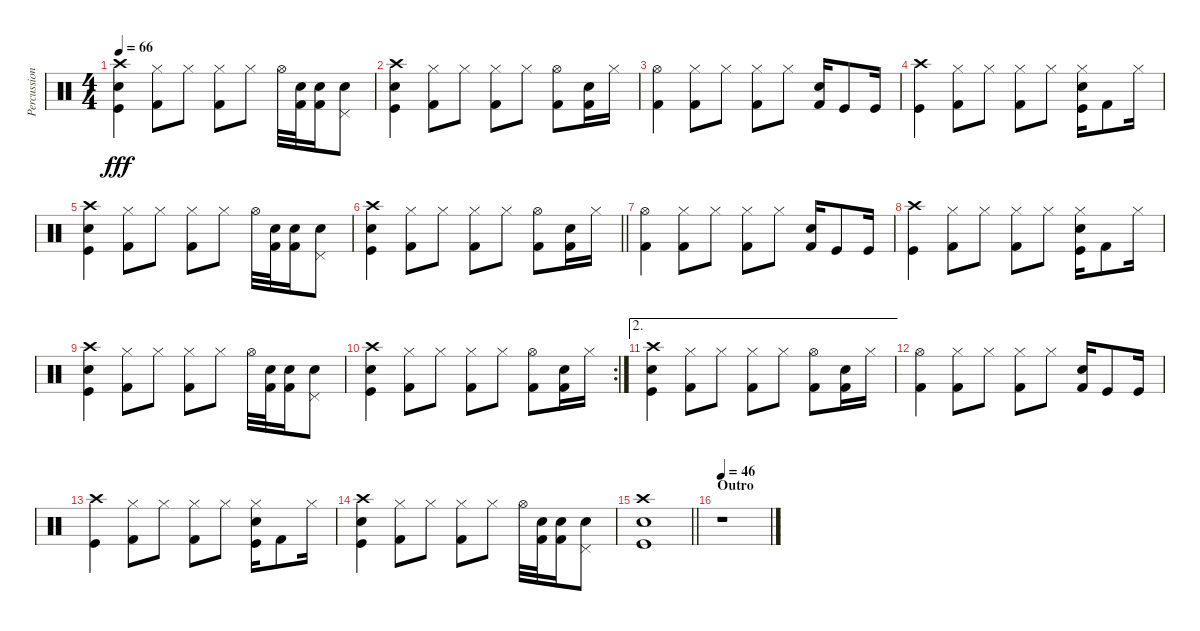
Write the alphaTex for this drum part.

\track ("Percussion" "Percussion") {instrument percussion}
\staff {score}
\articulation defaults
\ts (4 4)
\tempo 66
\clef neutral
\ks c
("Crash high (hit)" "Snare (hit) 2" "Kick (hit)").4{dy fff} ("Hi-Hat (closed)" "Kick (hit) 2").8 "Hi-Hat (closed)".8 ("Hi-Hat (closed)" "Kick (hit) 2").8 "Hi-Hat (closed)".8 "Hi-Hat (open)".32 ("Snare (hit) 2" "Kick (hit) 2").32 ("Snare (hit) 2" "Kick (hit) 2").16 ("Pedal Hi-Hat (hit)" "Snare (hit) 2").8 |
("Crash high (hit)" "Snare (hit) 2" "Kick (hit)").4 ("Hi-Hat (closed)" "Kick (hit) 2").8 "Hi-Hat (closed)".8 ("Hi-Hat (closed)" "Kick (hit) 2").8 "Hi-Hat (closed)".8 ("Hi-Hat (open)" "Kick (hit) 2").8 ("Snare (hit) 2" "Kick (hit) 2").16 "Hi-Hat (closed)".16 |
("Hi-Hat (open)" "Kick (hit) 2").4 ("Hi-Hat (closed)" "Kick (hit) 2").8 "Hi-Hat (closed)".8 ("Hi-Hat (closed)" "Kick (hit) 2").8 "Hi-Hat (closed)".8 ("Snare (hit) 2" "Kick (hit) 2").16 "Kick (hit)".8 "Kick (hit)".16 |
("Crash high (hit)" "Kick (hit)").4 ("Hi-Hat (closed)" "Kick (hit) 2").8 "Hi-Hat (closed)".8 ("Hi-Hat (closed)" "Kick (hit) 2").8 "Hi-Hat (closed)".8 ("Hi-Hat (closed)" "Snare (hit) 2" "Kick (hit)").16 "Kick (hit) 2".8 "Hi-Hat (closed)".16 |
("Crash high (hit)" "Snare (hit) 2" "Kick (hit)").4 ("Hi-Hat (closed)" "Kick (hit) 2").8 "Hi-Hat (closed)".8 ("Hi-Hat (closed)" "Kick (hit) 2").8 "Hi-Hat (closed)".8 "Hi-Hat (open)".32 ("Snare (hit) 2" "Kick (hit) 2").32 ("Snare (hit) 2" "Kick (hit) 2").16 ("Pedal Hi-Hat (hit)" "Snare (hit) 2").8 |
\barLineRight lightlight
("Crash high (hit)" "Snare (hit) 2" "Kick (hit)").4 ("Hi-Hat (closed)" "Kick (hit) 2").8 "Hi-Hat (closed)".8 ("Hi-Hat (closed)" "Kick (hit) 2").8 "Hi-Hat (closed)".8 ("Hi-Hat (open)" "Kick (hit) 2").8 ("Snare (hit) 2" "Kick (hit) 2").16 "Hi-Hat (closed)".16 |
("Hi-Hat (open)" "Kick (hit) 2").4 ("Hi-Hat (closed)" "Kick (hit) 2").8 "Hi-Hat (closed)".8 ("Hi-Hat (closed)" "Kick (hit) 2").8 "Hi-Hat (closed)".8 ("Snare (hit) 2" "Kick (hit) 2").16 "Kick (hit)".8 "Kick (hit)".16 |
("Crash high (hit)" "Kick (hit)").4 ("Hi-Hat (closed)" "Kick (hit) 2").8 "Hi-Hat (closed)".8 ("Hi-Hat (closed)" "Kick (hit) 2").8 "Hi-Hat (closed)".8 ("Hi-Hat (closed)" "Snare (hit) 2" "Kick (hit)").16 "Kick (hit) 2".8 "Hi-Hat (closed)".16 |
("Crash high (hit)" "Snare (hit) 2" "Kick (hit)").4 ("Hi-Hat (closed)" "Kick (hit) 2").8 "Hi-Hat (closed)".8 ("Hi-Hat (closed)" "Kick (hit) 2").8 "Hi-Hat (closed)".8 "Hi-Hat (open)".32 ("Snare (hit) 2" "Kick (hit) 2").32 ("Snare (hit) 2" "Kick (hit) 2").16 ("Pedal Hi-Hat (hit)" "Snare (hit) 2").8 |
\rc 2
("Crash high (hit)" "Snare (hit) 2" "Kick (hit)").4 ("Hi-Hat (closed)" "Kick (hit) 2").8 "Hi-Hat (closed)".8 ("Hi-Hat (closed)" "Kick (hit) 2").8 "Hi-Hat (closed)".8 ("Hi-Hat (open)" "Kick (hit) 2").8 ("Snare (hit) 2" "Kick (hit) 2").16 "Hi-Hat (closed)".16 |
\ae 2
("Crash high (hit)" "Snare (hit) 2" "Kick (hit)").4 ("Hi-Hat (closed)" "Kick (hit) 2").8 "Hi-Hat (closed)".8 ("Hi-Hat (closed)" "Kick (hit) 2").8 "Hi-Hat (closed)".8 ("Hi-Hat (open)" "Kick (hit) 2").8 ("Snare (hit) 2" "Kick (hit) 2").16 "Hi-Hat (closed)".16 |
("Hi-Hat (open)" "Kick (hit) 2").4 ("Hi-Hat (closed)" "Kick (hit) 2").8 "Hi-Hat (closed)".8 ("Hi-Hat (closed)" "Kick (hit) 2").8 "Hi-Hat (closed)".8 ("Snare (hit) 2" "Kick (hit) 2").16 "Kick (hit)".8 "Kick (hit)".16 |
("Crash high (hit)" "Kick (hit)").4 ("Hi-Hat (closed)" "Kick (hit) 2").8 "Hi-Hat (closed)".8 ("Hi-Hat (closed)" "Kick (hit) 2").8 "Hi-Hat (closed)".8 ("Hi-Hat (closed)" "Snare (hit) 2" "Kick (hit)").16 "Kick (hit) 2".8 "Hi-Hat (closed)".16 |
("Crash high (hit)" "Snare (hit) 2" "Kick (hit)").4 ("Hi-Hat (closed)" "Kick (hit) 2").8 "Hi-Hat (closed)".8 ("Hi-Hat (closed)" "Kick (hit) 2").8 "Hi-Hat (closed)".8 "Hi-Hat (open)".32 ("Snare (hit) 2" "Kick (hit) 2").32 ("Snare (hit) 2" "Kick (hit) 2").16 ("Pedal Hi-Hat (hit)" "Snare (hit) 2").8 |
\barLineRight lightlight
("Crash high (hit)" "Snare (hit) 2" "Kick (hit)").1 |
\section ("" "Outro")
\tempo 46
r.1
